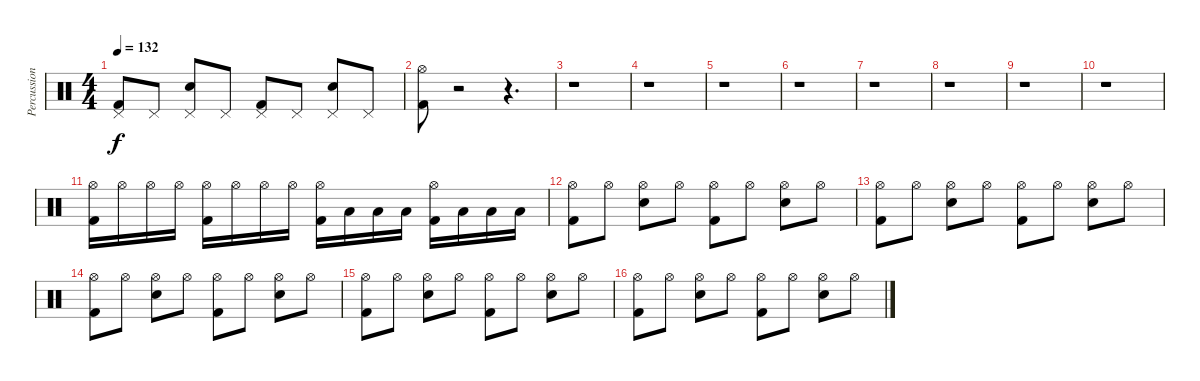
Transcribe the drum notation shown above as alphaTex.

\track ("Percussion" "Percussion") {instrument percussion}
\staff {score}
\articulation defaults
\ts (4 4)
\tempo 132
\clef neutral
\ks c
("Pedal Hi-Hat (hit)" "Kick (hit) 2").8{dy f} "Pedal Hi-Hat (hit)".8 ("Pedal Hi-Hat (hit)" "Snare (hit) 2").8 "Pedal Hi-Hat (hit)".8 ("Pedal Hi-Hat (hit)" "Kick (hit) 2").8 "Pedal Hi-Hat (hit)".8 ("Pedal Hi-Hat (hit)" "Snare (hit) 2").8 "Pedal Hi-Hat (hit)".8 |
("Hi-Hat (open)" "Kick (hit) 2").8 r.2 r.4{d} |
r.1 |
r.1 |
r.1 |
r.1 |
r.1 |
r.1 |
r.1 |
r.1 |
("Kick (hit) 2" "Hi-Hat (open)").16 "Hi-Hat (open)".16 "Hi-Hat (open)".16 "Hi-Hat (open)".16 ("Kick (hit) 2" "Hi-Hat (open)").16 "Hi-Hat (open)".16 "Hi-Hat (open)".16 "Hi-Hat (open)".16 ("Kick (hit) 2" "Hi-Hat (open)").16 "Low Tom (hit)".16 "Low Tom (hit)".16 "Low Tom (hit)".16 ("Kick (hit) 2" "Hi-Hat (open)").16 "Low Tom (hit)".16 "Low Tom (hit)".16 "Low Tom (hit)".16 |
("Hi-Hat (open)" "Kick (hit) 2").8 "Hi-Hat (open)".8 ("Hi-Hat (open)" "Snare (hit) 2").8 "Hi-Hat (open)".8 ("Hi-Hat (open)" "Kick (hit) 2").8 "Hi-Hat (open)".8 ("Hi-Hat (open)" "Snare (hit) 2").8 "Hi-Hat (open)".8 |
("Hi-Hat (open)" "Kick (hit) 2").8 "Hi-Hat (open)".8 ("Hi-Hat (open)" "Snare (hit) 2").8 "Hi-Hat (open)".8 ("Hi-Hat (open)" "Kick (hit) 2").8 "Hi-Hat (open)".8 ("Hi-Hat (open)" "Snare (hit) 2").8 "Hi-Hat (open)".8 |
("Hi-Hat (open)" "Kick (hit) 2").8 "Hi-Hat (open)".8 ("Hi-Hat (open)" "Snare (hit) 2").8 "Hi-Hat (open)".8 ("Hi-Hat (open)" "Kick (hit) 2").8 "Hi-Hat (open)".8 ("Hi-Hat (open)" "Snare (hit) 2").8 "Hi-Hat (open)".8 |
("Hi-Hat (open)" "Kick (hit) 2").8 "Hi-Hat (open)".8 ("Hi-Hat (open)" "Snare (hit) 2").8 "Hi-Hat (open)".8 ("Hi-Hat (open)" "Kick (hit) 2").8 "Hi-Hat (open)".8 ("Hi-Hat (open)" "Snare (hit) 2").8 "Hi-Hat (open)".8 |
("Hi-Hat (open)" "Kick (hit) 2").8 "Hi-Hat (open)".8 ("Hi-Hat (open)" "Snare (hit) 2").8 "Hi-Hat (open)".8 ("Hi-Hat (open)" "Kick (hit) 2").8 "Hi-Hat (open)".8 ("Hi-Hat (open)" "Snare (hit) 2").8 "Hi-Hat (open)".8
